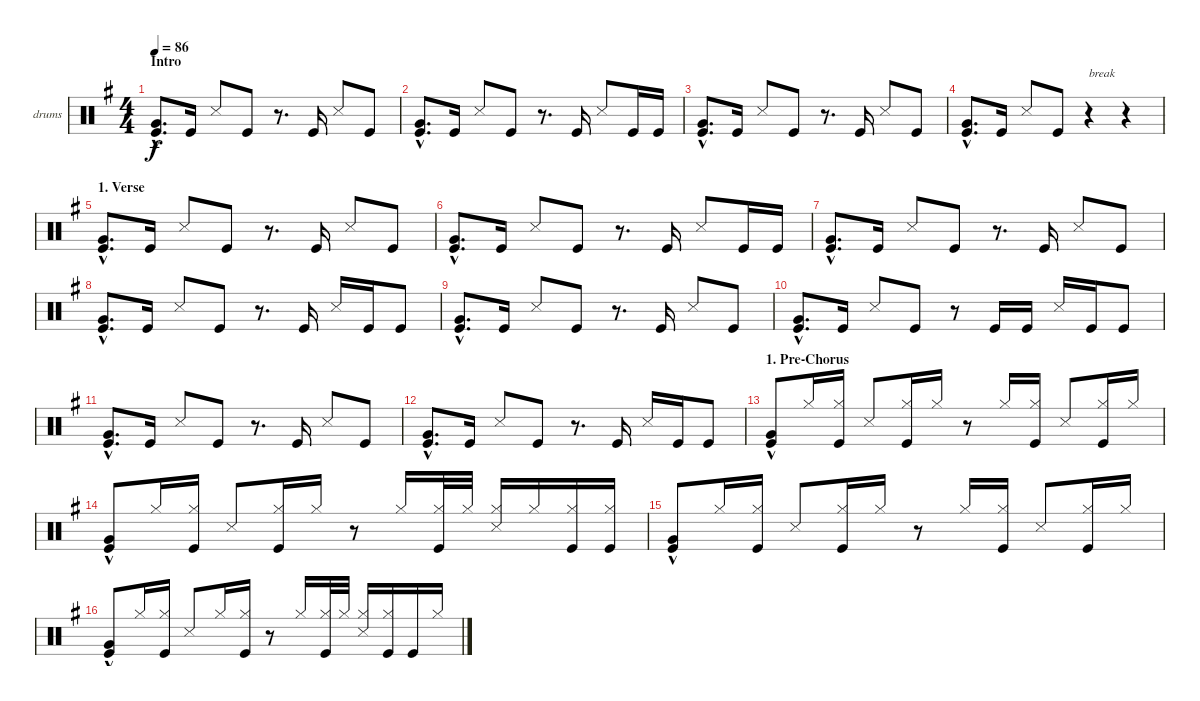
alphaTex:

\defaultSystemsLayout 4
\bracketExtendMode groupsimilarinstruments
\firstSystemTrackNameOrientation horizontal
\otherSystemsTrackNameOrientation horizontal
\track ("drums" "drums") {instrument percussion}
\staff {score}
\articulation defaults
\ts (4 4)
\section ("" "Intro")
\tempo 86
\clef neutral
\ks g
("Kick (hit)" "Very Low Tom (hit)"{hac}).8{d dy f} "Kick (hit)".16 "Snare (side stick) 3".8 "Kick (hit)".8 r.8{d} "Kick (hit)".16 "Snare (side stick) 3".8 "Kick (hit)".8 |
("Kick (hit)" "Very Low Tom (hit)"{hac}).8{d} "Kick (hit)".16 "Snare (side stick) 3".8 "Kick (hit)".8 r.8{d} "Kick (hit)".16 "Snare (side stick) 3".8 "Kick (hit)".16 "Kick (hit)".16 |
("Kick (hit)" "Very Low Tom (hit)"{hac}).8{d} "Kick (hit)".16 "Snare (side stick) 3".8 "Kick (hit)".8 r.8{d} "Kick (hit)".16 "Snare (side stick) 3".8 "Kick (hit)".8 |
("Kick (hit)" "Very Low Tom (hit)"{hac}).8{d} "Kick (hit)".16 "Snare (side stick) 3".8 "Kick (hit)".8 r.4{txt "break"} r.4 |
\section ("" "1. Verse")
("Kick (hit)" "Very Low Tom (hit)"{hac}).8{d} "Kick (hit)".16 "Snare (side stick) 3".8 "Kick (hit)".8 r.8{d} "Kick (hit)".16 "Snare (side stick) 3".8 "Kick (hit)".8 |
("Kick (hit)" "Very Low Tom (hit)"{hac}).8{d} "Kick (hit)".16 "Snare (side stick) 3".8 "Kick (hit)".8 r.8{d} "Kick (hit)".16 "Snare (side stick) 3".8 "Kick (hit)".16 "Kick (hit)".16 |
("Kick (hit)" "Very Low Tom (hit)"{hac}).8{d} "Kick (hit)".16 "Snare (side stick) 3".8 "Kick (hit)".8 r.8{d} "Kick (hit)".16 "Snare (side stick) 3".8 "Kick (hit)".8 |
("Kick (hit)" "Very Low Tom (hit)"{hac}).8{d} "Kick (hit)".16 "Snare (side stick) 3".8 "Kick (hit)".8 r.8{d} "Kick (hit)".16 "Snare (side stick) 3".16 "Kick (hit)".16 "Kick (hit)".8 |
("Kick (hit)" "Very Low Tom (hit)"{hac}).8{d} "Kick (hit)".16 "Snare (side stick) 3".8 "Kick (hit)".8 r.8{d} "Kick (hit)".16 "Snare (side stick) 3".8 "Kick (hit)".8 |
("Kick (hit)" "Very Low Tom (hit)"{hac}).8{d} "Kick (hit)".16 "Snare (side stick) 3".8 "Kick (hit)".8 r.8 "Kick (hit)".16 "Kick (hit)".16 "Snare (side stick) 3".16 "Kick (hit)".16 "Kick (hit)".8 |
("Kick (hit)" "Very Low Tom (hit)"{hac}).8{d} "Kick (hit)".16 "Snare (side stick) 3".8 "Kick (hit)".8 r.8{d} "Kick (hit)".16 "Snare (side stick) 3".8 "Kick (hit)".8 |
("Kick (hit)" "Very Low Tom (hit)"{hac}).8{d} "Kick (hit)".16 "Snare (side stick) 3".8 "Kick (hit)".8 r.8{d} "Kick (hit)".16 "Snare (side stick) 3".16 "Kick (hit)".16 "Kick (hit)".8 |
\section ("" "1. Pre-Chorus")
("Kick (hit)" "Very Low Tom (hit)"{hac}).8{beam invert} "Hi-Hat (closed)".16 ("Kick (hit)" "Hi-Hat (closed)").16 "Snare (side stick) 3".8{beam invert} ("Kick (hit)" "Hi-Hat (closed)").16 "Hi-Hat (closed)".16 r.8{beam invert} "Hi-Hat (closed)".16 ("Kick (hit)" "Hi-Hat (closed)").16{beam invert} "Snare (side stick) 3".8{beam invert} ("Kick (hit)" "Hi-Hat (closed)").16 "Hi-Hat (closed)".16 |
("Kick (hit)" "Very Low Tom (hit)"{hac}).8{beam invert} "Hi-Hat (closed)".16 ("Kick (hit)" "Hi-Hat (closed)").16 "Snare (side stick) 3".8{beam invert} ("Kick (hit)" "Hi-Hat (closed)").16 "Hi-Hat (closed)".16 r.8{beam invert} "Hi-Hat (closed)".16 ("Kick (hit)" "Hi-Hat (closed)").32{beam invert} "Hi-Hat (closed)".32 ("Snare (side stick) 3" "Hi-Hat (closed)").16{beam invert} "Hi-Hat (closed)".16 ("Kick (hit)" "Hi-Hat (closed)").16{beam invert} ("Kick (hit)" "Hi-Hat (closed)").16{beam invert} |
("Kick (hit)" "Very Low Tom (hit)"{hac}).8{beam invert} "Hi-Hat (closed)".16 ("Kick (hit)" "Hi-Hat (closed)").16 "Snare (side stick) 3".8{beam invert} ("Kick (hit)" "Hi-Hat (closed)").16 "Hi-Hat (closed)".16 r.8 "Hi-Hat (closed)".16 ("Kick (hit)" "Hi-Hat (closed)").16{beam invert} "Snare (side stick) 3".8{beam invert} ("Kick (hit)" "Hi-Hat (closed)").16 "Hi-Hat (closed)".16 |
("Kick (hit)" "Very Low Tom (hit)"{hac}).8{beam invert} "Hi-Hat (closed)".16 ("Kick (hit)" "Hi-Hat (closed)").16 "Snare (side stick) 3".8{beam invert} "Hi-Hat (closed)".16 ("Kick (hit)" "Hi-Hat (closed)").16 r.8{beam invert} "Hi-Hat (closed)".16 ("Kick (hit)" "Hi-Hat (closed)").32{beam invert} "Hi-Hat (closed)".32 ("Snare (side stick) 3" "Hi-Hat (closed)").16{beam invert} ("Kick (hit)" "Hi-Hat (closed)").16 "Kick (hit)".16 "Hi-Hat (closed)".16
